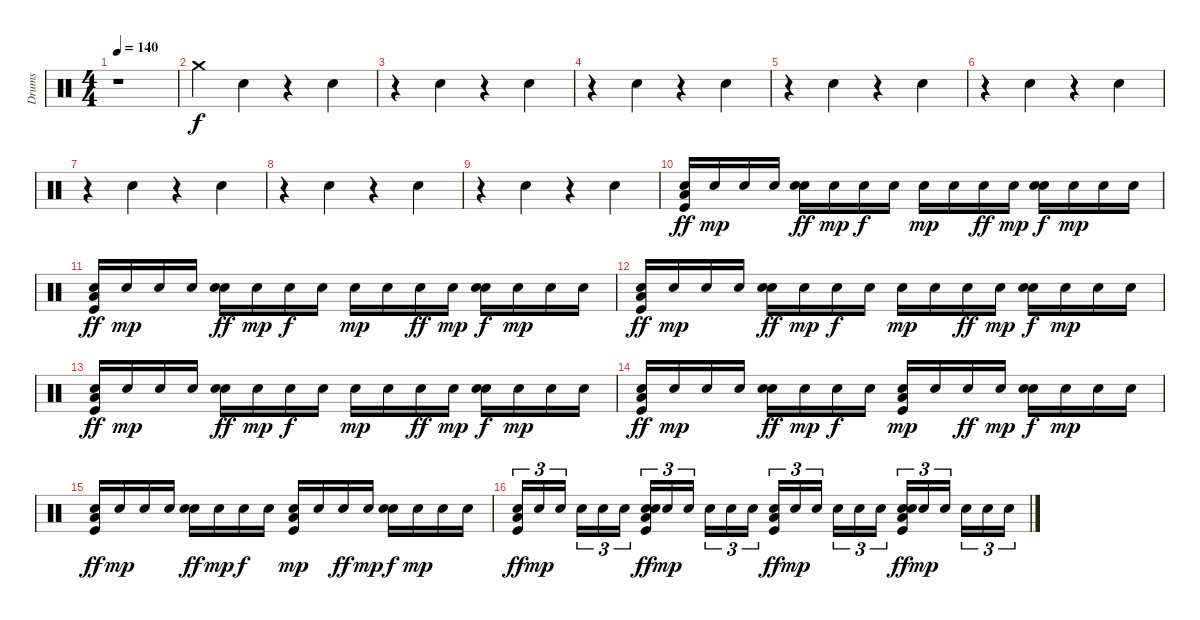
\track ("Drums" "Drums") {instrument percussion}
\staff {score}
\articulation defaults
\ts (4 4)
\tempo 140
\clef neutral
\ks c
r.1{dy mp} |
"Crash medium (hit)".4{dy f} "Hand Clap (hit)".4 r.4 "Hand Clap (hit)".4 |
r.4 "Hand Clap (hit)".4 r.4 "Hand Clap (hit)".4 |
r.4 "Hand Clap (hit)".4 r.4 "Hand Clap (hit)".4 |
r.4 "Hand Clap (hit)".4 r.4 "Hand Clap (hit)".4 |
r.4 "Hand Clap (hit)".4 r.4 "Hand Clap (hit)".4 |
r.4 "Hand Clap (hit)".4 r.4 "Hand Clap (hit)".4 |
r.4 "Hand Clap (hit)".4 r.4 "Hand Clap (hit)".4 |
r.4 "Hand Clap (hit)".4 r.4 "Hand Clap (hit)".4 |
("Snare (hit) 2" "Low Floor Tom (hit)" "Kick (hit)").16{dy ff} "Snare (hit) 2".16{dy mp} "Snare (hit) 2".16 "Snare (hit) 2".16 ("Hand Clap (hit)" "Snare (hit) 2").16{dy ff} "Snare (hit) 2".16{dy mp} "Snare (hit) 2".16{dy f} "Snare (hit) 2".16 "Snare (hit) 2".16{dy mp} "Snare (hit) 2".16 "Snare (hit) 2".16{dy ff} "Snare (hit) 2".16{dy mp} ("Hand Clap (hit)" "Snare (hit) 2").16{dy f} "Snare (hit) 2".16{dy mp} "Snare (hit) 2".16 "Snare (hit) 2".16 |
("Snare (hit) 2" "Low Floor Tom (hit)" "Kick (hit)").16{dy ff} "Snare (hit) 2".16{dy mp} "Snare (hit) 2".16 "Snare (hit) 2".16 ("Hand Clap (hit)" "Snare (hit) 2").16{dy ff} "Snare (hit) 2".16{dy mp} "Snare (hit) 2".16{dy f} "Snare (hit) 2".16 "Snare (hit) 2".16{dy mp} "Snare (hit) 2".16 "Snare (hit) 2".16{dy ff} "Snare (hit) 2".16{dy mp} ("Hand Clap (hit)" "Snare (hit) 2").16{dy f} "Snare (hit) 2".16{dy mp} "Snare (hit) 2".16 "Snare (hit) 2".16 |
("Snare (hit) 2" "Low Floor Tom (hit)" "Kick (hit)").16{dy ff} "Snare (hit) 2".16{dy mp} "Snare (hit) 2".16 "Snare (hit) 2".16 ("Hand Clap (hit)" "Snare (hit) 2").16{dy ff} "Snare (hit) 2".16{dy mp} "Snare (hit) 2".16{dy f} "Snare (hit) 2".16 "Snare (hit) 2".16{dy mp} "Snare (hit) 2".16 "Snare (hit) 2".16{dy ff} "Snare (hit) 2".16{dy mp} ("Hand Clap (hit)" "Snare (hit) 2").16{dy f} "Snare (hit) 2".16{dy mp} "Snare (hit) 2".16 "Snare (hit) 2".16 |
("Snare (hit) 2" "Low Floor Tom (hit)" "Kick (hit)").16{dy ff} "Snare (hit) 2".16{dy mp} "Snare (hit) 2".16 "Snare (hit) 2".16 ("Hand Clap (hit)" "Snare (hit) 2").16{dy ff} "Snare (hit) 2".16{dy mp} "Snare (hit) 2".16{dy f} "Snare (hit) 2".16 "Snare (hit) 2".16{dy mp} "Snare (hit) 2".16 "Snare (hit) 2".16{dy ff} "Snare (hit) 2".16{dy mp} ("Hand Clap (hit)" "Snare (hit) 2").16{dy f} "Snare (hit) 2".16{dy mp} "Snare (hit) 2".16 "Snare (hit) 2".16 |
("Snare (hit) 2" "Low Floor Tom (hit)" "Kick (hit)").16{dy ff} "Snare (hit) 2".16{dy mp} "Snare (hit) 2".16 "Snare (hit) 2".16 ("Hand Clap (hit)" "Snare (hit) 2").16{dy ff} "Snare (hit) 2".16{dy mp} "Snare (hit) 2".16{dy f} "Snare (hit) 2".16 ("Snare (hit) 2" "Low Floor Tom (hit)" "Kick (hit)").16{dy mp} "Snare (hit) 2".16 "Snare (hit) 2".16{dy ff} "Snare (hit) 2".16{dy mp} ("Hand Clap (hit)" "Snare (hit) 2").16{dy f} "Snare (hit) 2".16{dy mp} "Snare (hit) 2".16 "Snare (hit) 2".16 |
("Snare (hit) 2" "Low Floor Tom (hit)" "Kick (hit)").16{dy ff} "Snare (hit) 2".16{dy mp} "Snare (hit) 2".16 "Snare (hit) 2".16 ("Hand Clap (hit)" "Snare (hit) 2").16{dy ff} "Snare (hit) 2".16{dy mp} "Snare (hit) 2".16{dy f} "Snare (hit) 2".16 ("Snare (hit) 2" "Low Floor Tom (hit)" "Kick (hit)").16{dy mp} "Snare (hit) 2".16 "Snare (hit) 2".16{dy ff} "Snare (hit) 2".16{dy mp} ("Hand Clap (hit)" "Snare (hit) 2").16{dy f} "Snare (hit) 2".16{dy mp} "Snare (hit) 2".16 "Snare (hit) 2".16 |
("Snare (hit) 2" "Low Floor Tom (hit)" "Kick (hit)").16{tu (3 2) dy ff} "Snare (hit) 2".16{tu (3 2) dy mp} "Snare (hit) 2".16{tu (3 2)} "Snare (hit) 2".16{tu (3 2)} "Snare (hit) 2".16{tu (3 2)} "Snare (hit) 2".16{tu (3 2)} ("Hand Clap (hit)" "Snare (hit) 2" "Low Floor Tom (hit)" "Kick (hit)").16{tu (3 2) dy ff} "Snare (hit) 2".16{tu (3 2) dy mp} "Snare (hit) 2".16{tu (3 2)} "Snare (hit) 2".16{tu (3 2)} "Snare (hit) 2".16{tu (3 2)} "Snare (hit) 2".16{tu (3 2)} ("Snare (hit) 2" "Low Floor Tom (hit)" "Kick (hit)").16{tu (3 2) dy ff} "Snare (hit) 2".16{tu (3 2) dy mp} "Snare (hit) 2".16{tu (3 2)} "Snare (hit) 2".16{tu (3 2)} "Snare (hit) 2".16{tu (3 2)} "Snare (hit) 2".16{tu (3 2)} ("Hand Clap (hit)" "Snare (hit) 2" "Low Floor Tom (hit)" "Kick (hit)").16{tu (3 2) dy ff} "Snare (hit) 2".16{tu (3 2) dy mp} "Snare (hit) 2".16{tu (3 2)} "Snare (hit) 2".16{tu (3 2)} "Snare (hit) 2".16{tu (3 2)} "Snare (hit) 2".16{tu (3 2)}
